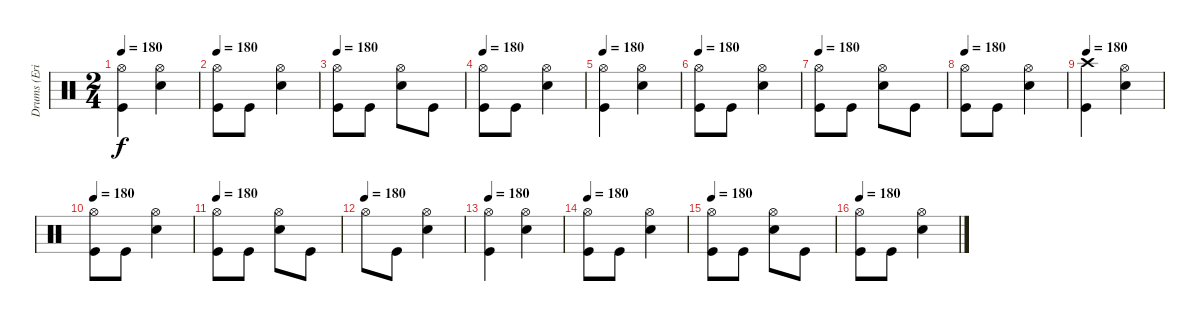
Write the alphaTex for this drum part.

\track ("Drums (Eric Singer)" "Drums (Eri") {instrument percussion}
\staff {score}
\articulation defaults
\ts (2 4)
\tempo 180
\clef neutral
\ks c
("Hi-Hat (open)" "Kick (hit)").4{dy f} ("Hi-Hat (open)" "Electric Snare (hit)").4 |
\tempo 180
("Hi-Hat (open)" "Kick (hit)").8 "Kick (hit)".8 ("Hi-Hat (open)" "Electric Snare (hit)").4 |
\tempo 180
("Hi-Hat (open)" "Kick (hit)").8 "Kick (hit)".8 ("Hi-Hat (open)" "Electric Snare (hit)").8 "Kick (hit)".8 |
\tempo 180
("Hi-Hat (open)" "Kick (hit)").8 "Kick (hit)".8 ("Hi-Hat (open)" "Electric Snare (hit)").4 |
\tempo 180
("Hi-Hat (open)" "Kick (hit)").4 ("Hi-Hat (open)" "Electric Snare (hit)").4 |
\tempo 180
("Hi-Hat (open)" "Kick (hit)").8 "Kick (hit)".8 ("Hi-Hat (open)" "Electric Snare (hit)").4 |
\tempo 180
("Hi-Hat (open)" "Kick (hit)").8 "Kick (hit)".8 ("Hi-Hat (open)" "Electric Snare (hit)").8 "Kick (hit)".8 |
\tempo 180
("Hi-Hat (open)" "Kick (hit)").8 "Kick (hit)".8 ("Hi-Hat (open)" "Electric Snare (hit)").4 |
\tempo 180
("Crash high (hit)" "Kick (hit)").4 ("Hi-Hat (open)" "Electric Snare (hit)").4 |
\tempo 180
("Hi-Hat (open)" "Kick (hit)").8 "Kick (hit)".8 ("Hi-Hat (open)" "Electric Snare (hit)").4 |
\tempo 180
("Hi-Hat (open)" "Kick (hit)").8 "Kick (hit)".8 ("Hi-Hat (open)" "Electric Snare (hit)").8 "Kick (hit)".8 |
\tempo (180)
"Hi-Hat (open)".8 "Kick (hit)".8 ("Hi-Hat (open)" "Electric Snare (hit)").4 |
\tempo 180
("Hi-Hat (open)" "Kick (hit)").4 ("Hi-Hat (open)" "Electric Snare (hit)").4 |
\tempo 180
("Hi-Hat (open)" "Kick (hit)").8 "Kick (hit)".8 ("Hi-Hat (open)" "Electric Snare (hit)").4 |
\tempo 180
("Hi-Hat (open)" "Kick (hit)").8 "Kick (hit)".8 ("Hi-Hat (open)" "Electric Snare (hit)").8 "Kick (hit)".8 |
\tempo 180
("Hi-Hat (open)" "Kick (hit)").8 "Kick (hit)".8 ("Hi-Hat (open)" "Electric Snare (hit)").4
